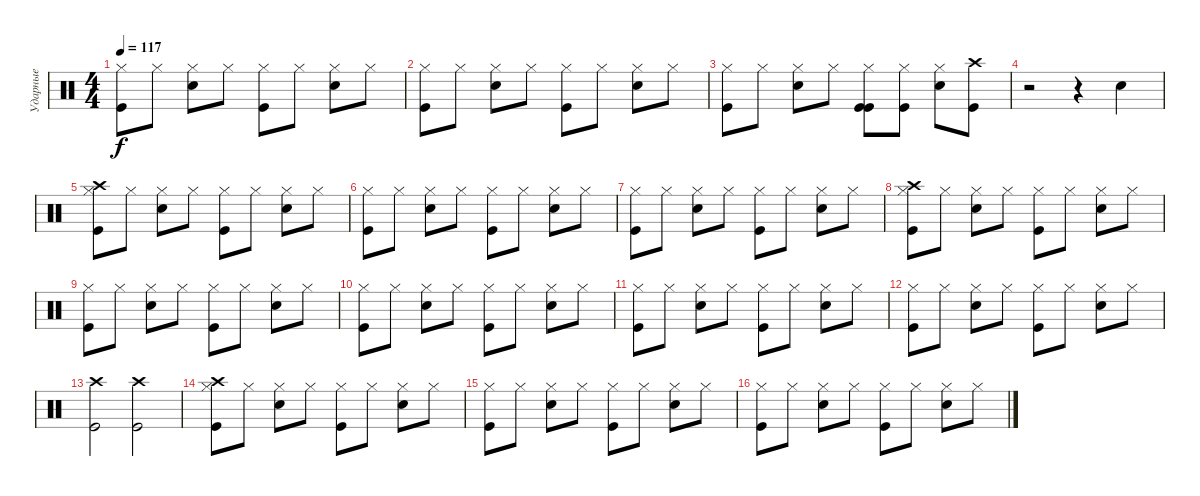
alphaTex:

\track ("Ударные" "Ударные") {instrument percussion}
\staff {score}
\articulation defaults
\ts (4 4)
\tempo 117
\clef neutral
\ks c
("Kick (hit)" "Hi-Hat (closed)").8{dy f} "Hi-Hat (closed)".8 ("Hi-Hat (closed)" "Snare (hit) 2").8 "Hi-Hat (closed)".8 ("Kick (hit)" "Hi-Hat (closed)").8 "Hi-Hat (closed)".8 ("Hi-Hat (closed)" "Snare (hit) 2").8 "Hi-Hat (closed)".8 |
("Kick (hit)" "Hi-Hat (closed)").8 "Hi-Hat (closed)".8 ("Hi-Hat (closed)" "Snare (hit) 2").8 "Hi-Hat (closed)".8 ("Kick (hit)" "Hi-Hat (closed)").8 "Hi-Hat (closed)".8 ("Hi-Hat (closed)" "Snare (hit) 2").8 "Hi-Hat (closed)".8 |
("Kick (hit)" "Hi-Hat (closed)").8 "Hi-Hat (closed)".8 ("Hi-Hat (closed)" "Snare (hit) 2").8 "Hi-Hat (closed)".8 ("Kick (hit)" "Kick (hit)" "Hi-Hat (closed)").8 ("Kick (hit)" "Hi-Hat (closed)").8 ("Hi-Hat (closed)" "Snare (hit) 2").8 ("Kick (hit)" "Crash high (hit)").8 |
r.2 r.4 "Snare (hit) 2".4 |
("Kick (hit)" "Hi-Hat (closed)" "Crash high (hit)").8 "Hi-Hat (closed)".8 ("Hi-Hat (closed)" "Snare (hit) 2").8 "Hi-Hat (closed)".8 ("Kick (hit)" "Hi-Hat (closed)").8 "Hi-Hat (closed)".8 ("Hi-Hat (closed)" "Snare (hit) 2").8 "Hi-Hat (closed)".8 |
("Kick (hit)" "Hi-Hat (closed)").8 "Hi-Hat (closed)".8 ("Hi-Hat (closed)" "Snare (hit) 2").8 "Hi-Hat (closed)".8 ("Kick (hit)" "Hi-Hat (closed)").8 "Hi-Hat (closed)".8 ("Hi-Hat (closed)" "Snare (hit) 2").8 "Hi-Hat (closed)".8 |
("Kick (hit)" "Hi-Hat (closed)").8 "Hi-Hat (closed)".8 ("Hi-Hat (closed)" "Snare (hit) 2").8 "Hi-Hat (closed)".8 ("Kick (hit)" "Hi-Hat (closed)").8 "Hi-Hat (closed)".8 ("Hi-Hat (closed)" "Snare (hit) 2").8 "Hi-Hat (closed)".8 |
("Kick (hit)" "Hi-Hat (closed)" "Crash high (hit)").8 "Hi-Hat (closed)".8 ("Hi-Hat (closed)" "Snare (hit) 2").8 "Hi-Hat (closed)".8 ("Kick (hit)" "Hi-Hat (closed)").8 "Hi-Hat (closed)".8 ("Hi-Hat (closed)" "Snare (hit) 2").8 "Hi-Hat (closed)".8 |
("Kick (hit)" "Hi-Hat (closed)").8 "Hi-Hat (closed)".8 ("Hi-Hat (closed)" "Snare (hit) 2").8 "Hi-Hat (closed)".8 ("Kick (hit)" "Hi-Hat (closed)").8 "Hi-Hat (closed)".8 ("Hi-Hat (closed)" "Snare (hit) 2").8 "Hi-Hat (closed)".8 |
("Kick (hit)" "Hi-Hat (closed)").8 "Hi-Hat (closed)".8 ("Hi-Hat (closed)" "Snare (hit) 2").8 "Hi-Hat (closed)".8 ("Kick (hit)" "Hi-Hat (closed)").8 "Hi-Hat (closed)".8 ("Hi-Hat (closed)" "Snare (hit) 2").8 "Hi-Hat (closed)".8 |
("Kick (hit)" "Hi-Hat (closed)").8 "Hi-Hat (closed)".8 ("Hi-Hat (closed)" "Snare (hit) 2").8 "Hi-Hat (closed)".8 ("Kick (hit)" "Hi-Hat (closed)").8 "Hi-Hat (closed)".8 ("Hi-Hat (closed)" "Snare (hit) 2").8 "Hi-Hat (closed)".8 |
("Kick (hit)" "Hi-Hat (closed)").8 "Hi-Hat (closed)".8 ("Hi-Hat (closed)" "Snare (hit) 2").8 "Hi-Hat (closed)".8 ("Kick (hit)" "Hi-Hat (closed)").8 "Hi-Hat (closed)".8 ("Hi-Hat (closed)" "Snare (hit) 2").8 "Hi-Hat (closed)".8 |
("Kick (hit)" "Crash high (hit)").2 ("Kick (hit)" "Crash high (hit)").2 |
("Kick (hit)" "Hi-Hat (closed)" "Crash high (hit)").8 "Hi-Hat (closed)".8 ("Hi-Hat (closed)" "Snare (hit) 2").8 "Hi-Hat (closed)".8 ("Kick (hit)" "Hi-Hat (closed)").8 "Hi-Hat (closed)".8 ("Hi-Hat (closed)" "Snare (hit) 2").8 "Hi-Hat (closed)".8 |
("Kick (hit)" "Hi-Hat (closed)").8 "Hi-Hat (closed)".8 ("Hi-Hat (closed)" "Snare (hit) 2").8 "Hi-Hat (closed)".8 ("Kick (hit)" "Hi-Hat (closed)").8 "Hi-Hat (closed)".8 ("Hi-Hat (closed)" "Snare (hit) 2").8 "Hi-Hat (closed)".8 |
("Kick (hit)" "Hi-Hat (closed)").8 "Hi-Hat (closed)".8 ("Hi-Hat (closed)" "Snare (hit) 2").8 "Hi-Hat (closed)".8 ("Kick (hit)" "Hi-Hat (closed)").8 "Hi-Hat (closed)".8 ("Hi-Hat (closed)" "Snare (hit) 2").8 "Hi-Hat (closed)".8
